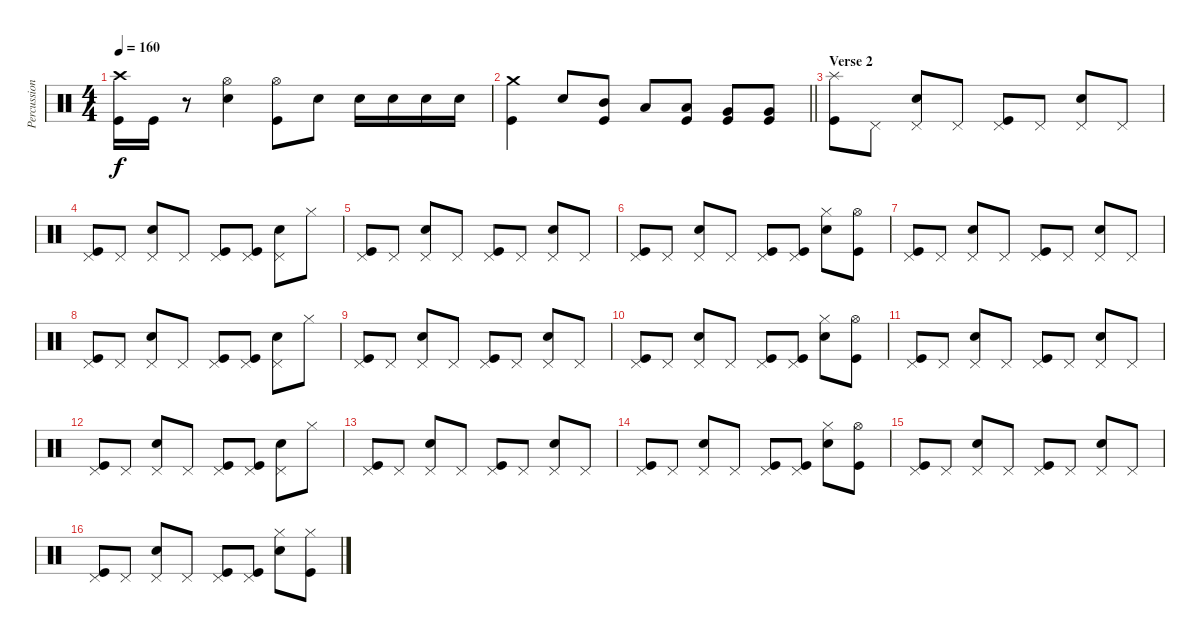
\track ("Percussion" "Percussion") {instrument percussion}
\staff {score}
\articulation defaults
\ts (4 4)
\tempo 160
\clef neutral
\ks c
("Crash high (hit)" "Kick (hit)").16{dy f} "Kick (hit)".16 r.8 ("Hi-Hat (open)" "Snare (hit) 2").4 ("Hi-Hat (open)" "Kick (hit)").8 "Snare (hit) 2".8 "Snare (hit) 2".16 "Snare (hit) 2".16 "Snare (hit) 2".16 "Snare (hit) 2".16 |
\barLineRight lightlight
("Crash medium (hit)" "Kick (hit)").4 "Snare (hit) 2".8 ("Mid Tom (hit)" "Kick (hit)").8 "Low Tom (hit)".8 ("Low Tom (hit)" "Kick (hit)").8 ("Very Low Tom (hit)" "Kick (hit)").8 ("Very Low Tom (hit)" "Kick (hit)").8 |
\section ("" "Verse 2")
("Splash (hit)" "Kick (hit)").8 "Pedal Hi-Hat (hit)".8 ("Pedal Hi-Hat (hit)" "Snare (hit) 2").8 "Pedal Hi-Hat (hit)".8 ("Pedal Hi-Hat (hit)" "Kick (hit)").8 "Pedal Hi-Hat (hit)".8 ("Pedal Hi-Hat (hit)" "Snare (hit) 2").8 "Pedal Hi-Hat (hit)".8 |
("Pedal Hi-Hat (hit)" "Kick (hit)").8 "Pedal Hi-Hat (hit)".8 ("Pedal Hi-Hat (hit)" "Snare (hit) 2").8 "Pedal Hi-Hat (hit)".8 ("Pedal Hi-Hat (hit)" "Kick (hit)").8 ("Pedal Hi-Hat (hit)" "Kick (hit)").8 ("Pedal Hi-Hat (hit)" "Snare (hit) 2").8 "Hi-Hat (closed)".8 |
("Pedal Hi-Hat (hit)" "Kick (hit)").8 "Pedal Hi-Hat (hit)".8 ("Pedal Hi-Hat (hit)" "Snare (hit) 2").8 "Pedal Hi-Hat (hit)".8 ("Pedal Hi-Hat (hit)" "Kick (hit)").8 "Pedal Hi-Hat (hit)".8 ("Pedal Hi-Hat (hit)" "Snare (hit) 2").8 "Pedal Hi-Hat (hit)".8 |
("Pedal Hi-Hat (hit)" "Kick (hit)").8 "Pedal Hi-Hat (hit)".8 ("Pedal Hi-Hat (hit)" "Snare (hit) 2").8 "Pedal Hi-Hat (hit)".8 ("Pedal Hi-Hat (hit)" "Kick (hit)").8 ("Pedal Hi-Hat (hit)" "Kick (hit)").8 ("Hi-Hat (closed)" "Snare (hit) 2").8 ("Hi-Hat (open)" "Kick (hit)").8 |
("Pedal Hi-Hat (hit)" "Kick (hit)").8 "Pedal Hi-Hat (hit)".8 ("Pedal Hi-Hat (hit)" "Snare (hit) 2").8 "Pedal Hi-Hat (hit)".8 ("Pedal Hi-Hat (hit)" "Kick (hit)").8 "Pedal Hi-Hat (hit)".8 ("Pedal Hi-Hat (hit)" "Snare (hit) 2").8 "Pedal Hi-Hat (hit)".8 |
("Pedal Hi-Hat (hit)" "Kick (hit)").8 "Pedal Hi-Hat (hit)".8 ("Pedal Hi-Hat (hit)" "Snare (hit) 2").8 "Pedal Hi-Hat (hit)".8 ("Pedal Hi-Hat (hit)" "Kick (hit)").8 ("Pedal Hi-Hat (hit)" "Kick (hit)").8 ("Pedal Hi-Hat (hit)" "Snare (hit) 2").8 "Hi-Hat (closed)".8 |
("Pedal Hi-Hat (hit)" "Kick (hit)").8 "Pedal Hi-Hat (hit)".8 ("Pedal Hi-Hat (hit)" "Snare (hit) 2").8 "Pedal Hi-Hat (hit)".8 ("Pedal Hi-Hat (hit)" "Kick (hit)").8 "Pedal Hi-Hat (hit)".8 ("Pedal Hi-Hat (hit)" "Snare (hit) 2").8 "Pedal Hi-Hat (hit)".8 |
("Pedal Hi-Hat (hit)" "Kick (hit)").8 "Pedal Hi-Hat (hit)".8 ("Pedal Hi-Hat (hit)" "Snare (hit) 2").8 "Pedal Hi-Hat (hit)".8 ("Pedal Hi-Hat (hit)" "Kick (hit)").8 ("Pedal Hi-Hat (hit)" "Kick (hit)").8 ("Hi-Hat (closed)" "Snare (hit) 2").8 ("Hi-Hat (open)" "Kick (hit)").8 |
("Pedal Hi-Hat (hit)" "Kick (hit)").8 "Pedal Hi-Hat (hit)".8 ("Pedal Hi-Hat (hit)" "Snare (hit) 2").8 "Pedal Hi-Hat (hit)".8 ("Pedal Hi-Hat (hit)" "Kick (hit)").8 "Pedal Hi-Hat (hit)".8 ("Pedal Hi-Hat (hit)" "Snare (hit) 2").8 "Pedal Hi-Hat (hit)".8 |
("Pedal Hi-Hat (hit)" "Kick (hit)").8 "Pedal Hi-Hat (hit)".8 ("Pedal Hi-Hat (hit)" "Snare (hit) 2").8 "Pedal Hi-Hat (hit)".8 ("Pedal Hi-Hat (hit)" "Kick (hit)").8 ("Pedal Hi-Hat (hit)" "Kick (hit)").8 ("Pedal Hi-Hat (hit)" "Snare (hit) 2").8 "Hi-Hat (closed)".8 |
("Pedal Hi-Hat (hit)" "Kick (hit)").8 "Pedal Hi-Hat (hit)".8 ("Pedal Hi-Hat (hit)" "Snare (hit) 2").8 "Pedal Hi-Hat (hit)".8 ("Pedal Hi-Hat (hit)" "Kick (hit)").8 "Pedal Hi-Hat (hit)".8 ("Pedal Hi-Hat (hit)" "Snare (hit) 2").8 "Pedal Hi-Hat (hit)".8 |
("Pedal Hi-Hat (hit)" "Kick (hit)").8 "Pedal Hi-Hat (hit)".8 ("Pedal Hi-Hat (hit)" "Snare (hit) 2").8 "Pedal Hi-Hat (hit)".8 ("Pedal Hi-Hat (hit)" "Kick (hit)").8 ("Pedal Hi-Hat (hit)" "Kick (hit)").8 ("Hi-Hat (closed)" "Snare (hit) 2").8 ("Hi-Hat (open)" "Kick (hit)").8 |
("Pedal Hi-Hat (hit)" "Kick (hit)").8 "Pedal Hi-Hat (hit)".8 ("Pedal Hi-Hat (hit)" "Snare (hit) 2").8 "Pedal Hi-Hat (hit)".8 ("Pedal Hi-Hat (hit)" "Kick (hit)").8 "Pedal Hi-Hat (hit)".8 ("Pedal Hi-Hat (hit)" "Snare (hit) 2").8 "Pedal Hi-Hat (hit)".8 |
("Pedal Hi-Hat (hit)" "Kick (hit)").8 "Pedal Hi-Hat (hit)".8 ("Pedal Hi-Hat (hit)" "Snare (hit) 2").8 "Pedal Hi-Hat (hit)".8 ("Pedal Hi-Hat (hit)" "Kick (hit)").8 ("Pedal Hi-Hat (hit)" "Kick (hit)").8 ("Hi-Hat (closed)" "Snare (hit) 2").8 ("Hi-Hat (closed)" "Kick (hit)").8
